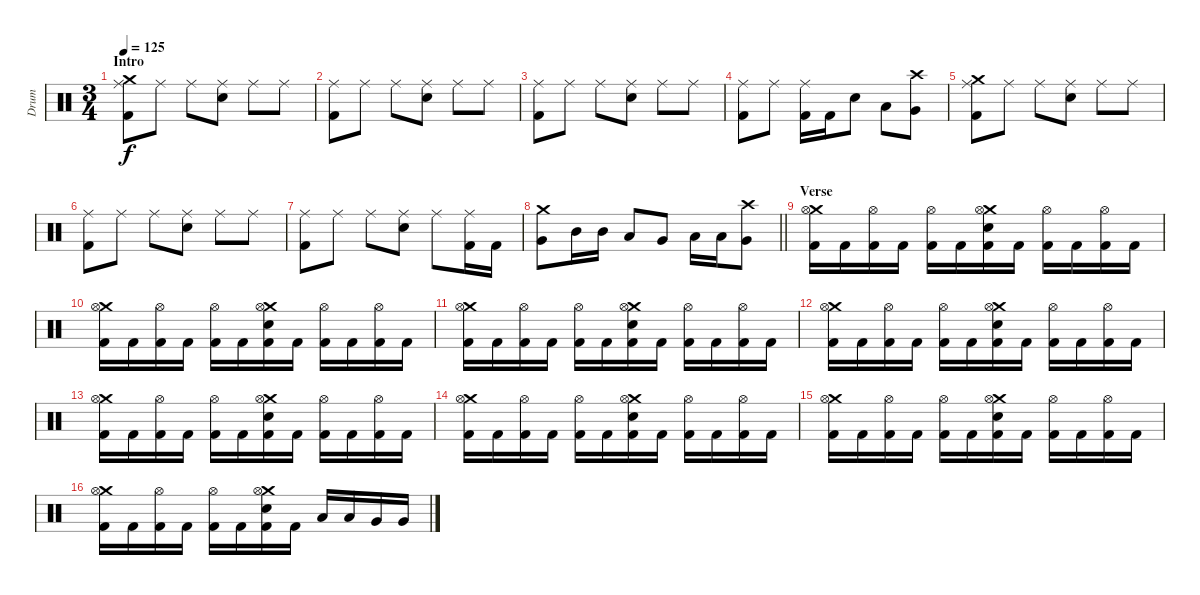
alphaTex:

\track ("Drum" "Drum") {instrument percussion}
\staff {score}
\articulation defaults
\ts (3 4)
\section ("" "Intro")
\tempo 125
\clef neutral
\ks c
("Crash medium (hit)" "Ride (middle)" "Kick (hit) 2").8{dy f} "Ride (middle)".8 "Ride (middle)".8 ("Ride (middle)" "Electric Snare (hit)").8 "Ride (middle)".8 "Ride (middle)".8 |
("Ride (middle)" "Kick (hit) 2").8 "Ride (middle)".8 "Ride (middle)".8 ("Ride (middle)" "Electric Snare (hit)").8 "Ride (middle)".8 "Ride (middle)".8 |
("Ride (middle)" "Kick (hit) 2").8 "Ride (middle)".8 "Ride (middle)".8 ("Ride (middle)" "Electric Snare (hit)").8 "Ride (middle)".8 "Ride (middle)".8 |
("Ride (middle)" "Kick (hit) 2").8 "Ride (middle)".8 ("Ride (middle)" "Kick (hit) 2").16 "Kick (hit) 2".16 "Electric Snare (hit)".8 "Low Tom (hit)".8 ("Crash high (hit)" "Very Low Tom (hit)").8 |
("Crash medium (hit)" "Ride (middle)" "Kick (hit) 2").8 "Ride (middle)".8 "Ride (middle)".8 ("Ride (middle)" "Electric Snare (hit)").8 "Ride (middle)".8 "Ride (middle)".8 |
("Ride (middle)" "Kick (hit) 2").8 "Ride (middle)".8 "Ride (middle)".8 ("Ride (middle)" "Electric Snare (hit)").8 "Ride (middle)".8 "Ride (middle)".8 |
("Ride (middle)" "Kick (hit) 2").8 "Ride (middle)".8 "Ride (middle)".8 ("Ride (middle)" "Electric Snare (hit)").8 "Ride (middle)".8 ("Ride (middle)" "Kick (hit) 2").16 "Kick (hit) 2".16 |
\barLineRight lightlight
("Crash medium (hit)" "Very Low Tom (hit)").8 "Mid Tom (hit)".16 "Mid Tom (hit)".16 "Low Tom (hit)".8 "Very Low Tom (hit)".8 "Low Tom (hit)".16 "Low Tom (hit)".16 ("Crash high (hit)" "Very Low Tom (hit)").8 |
\section ("" "Verse")
("Crash medium (hit)" "Hi-Hat (open)" "Kick (hit) 2").16 "Kick (hit) 2".16 ("Hi-Hat (open)" "Kick (hit) 2").16 "Kick (hit) 2".16 ("Hi-Hat (open)" "Kick (hit) 2").16 "Kick (hit) 2".16 ("Crash medium (hit)" "Hi-Hat (open)" "Electric Snare (hit)" "Kick (hit) 2").16 "Kick (hit) 2".16 ("Hi-Hat (open)" "Kick (hit) 2").16 "Kick (hit) 2".16 ("Hi-Hat (open)" "Kick (hit) 2").16 "Kick (hit) 2".16 |
("Crash medium (hit)" "Hi-Hat (open)" "Kick (hit) 2").16 "Kick (hit) 2".16 ("Hi-Hat (open)" "Kick (hit) 2").16 "Kick (hit) 2".16 ("Hi-Hat (open)" "Kick (hit) 2").16 "Kick (hit) 2".16 ("Crash medium (hit)" "Hi-Hat (open)" "Electric Snare (hit)" "Kick (hit) 2").16 "Kick (hit) 2".16 ("Hi-Hat (open)" "Kick (hit) 2").16 "Kick (hit) 2".16 ("Hi-Hat (open)" "Kick (hit) 2").16 "Kick (hit) 2".16 |
("Crash medium (hit)" "Hi-Hat (open)" "Kick (hit) 2").16 "Kick (hit) 2".16 ("Hi-Hat (open)" "Kick (hit) 2").16 "Kick (hit) 2".16 ("Hi-Hat (open)" "Kick (hit) 2").16 "Kick (hit) 2".16 ("Crash medium (hit)" "Hi-Hat (open)" "Electric Snare (hit)" "Kick (hit) 2").16 "Kick (hit) 2".16 ("Hi-Hat (open)" "Kick (hit) 2").16 "Kick (hit) 2".16 ("Hi-Hat (open)" "Kick (hit) 2").16 "Kick (hit) 2".16 |
("Crash medium (hit)" "Hi-Hat (open)" "Kick (hit) 2").16 "Kick (hit) 2".16 ("Hi-Hat (open)" "Kick (hit) 2").16 "Kick (hit) 2".16 ("Hi-Hat (open)" "Kick (hit) 2").16 "Kick (hit) 2".16 ("Crash medium (hit)" "Hi-Hat (open)" "Electric Snare (hit)" "Kick (hit) 2").16 "Kick (hit) 2".16 ("Hi-Hat (open)" "Kick (hit) 2").16 "Kick (hit) 2".16 ("Hi-Hat (open)" "Kick (hit) 2").16 "Kick (hit) 2".16 |
("Crash medium (hit)" "Hi-Hat (open)" "Kick (hit) 2").16 "Kick (hit) 2".16 ("Hi-Hat (open)" "Kick (hit) 2").16 "Kick (hit) 2".16 ("Hi-Hat (open)" "Kick (hit) 2").16 "Kick (hit) 2".16 ("Crash medium (hit)" "Hi-Hat (open)" "Electric Snare (hit)" "Kick (hit) 2").16 "Kick (hit) 2".16 ("Hi-Hat (open)" "Kick (hit) 2").16 "Kick (hit) 2".16 ("Hi-Hat (open)" "Kick (hit) 2").16 "Kick (hit) 2".16 |
("Crash medium (hit)" "Hi-Hat (open)" "Kick (hit) 2").16 "Kick (hit) 2".16 ("Hi-Hat (open)" "Kick (hit) 2").16 "Kick (hit) 2".16 ("Hi-Hat (open)" "Kick (hit) 2").16 "Kick (hit) 2".16 ("Crash medium (hit)" "Hi-Hat (open)" "Electric Snare (hit)" "Kick (hit) 2").16 "Kick (hit) 2".16 ("Hi-Hat (open)" "Kick (hit) 2").16 "Kick (hit) 2".16 ("Hi-Hat (open)" "Kick (hit) 2").16 "Kick (hit) 2".16 |
("Crash medium (hit)" "Hi-Hat (open)" "Kick (hit) 2").16 "Kick (hit) 2".16 ("Hi-Hat (open)" "Kick (hit) 2").16 "Kick (hit) 2".16 ("Hi-Hat (open)" "Kick (hit) 2").16 "Kick (hit) 2".16 ("Crash medium (hit)" "Hi-Hat (open)" "Electric Snare (hit)" "Kick (hit) 2").16 "Kick (hit) 2".16 ("Hi-Hat (open)" "Kick (hit) 2").16 "Kick (hit) 2".16 ("Hi-Hat (open)" "Kick (hit) 2").16 "Kick (hit) 2".16 |
("Crash medium (hit)" "Hi-Hat (open)" "Kick (hit) 2").16 "Kick (hit) 2".16 ("Hi-Hat (open)" "Kick (hit) 2").16 "Kick (hit) 2".16 ("Hi-Hat (open)" "Kick (hit) 2").16 "Kick (hit) 2".16 ("Crash medium (hit)" "Hi-Hat (open)" "Electric Snare (hit)" "Kick (hit) 2").16 "Kick (hit) 2".16 "Low Tom (hit)".16 "Low Tom (hit)".16 "Very Low Tom (hit)".16 "Very Low Tom (hit)".16
